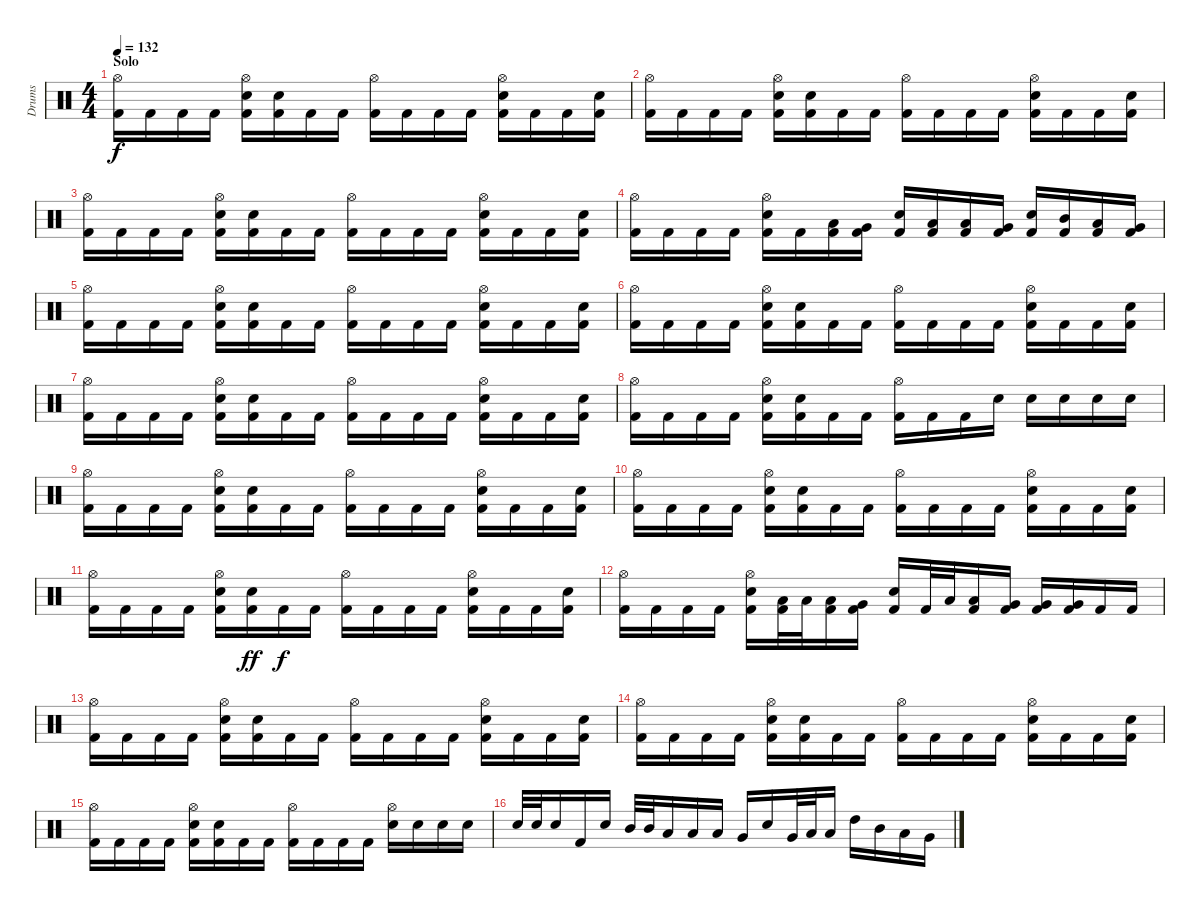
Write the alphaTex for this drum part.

\track ("Drums" "Drums") {instrument percussion}
\staff {score}
\articulation defaults
\ts (4 4)
\section ("" "Solo")
\tempo 132
\clef neutral
\ks c
("Hi-Hat (open)" "Kick (hit) 2").16{dy f} "Kick (hit) 2".16 "Kick (hit) 2".16 "Kick (hit) 2".16 ("Hi-Hat (open)" "Electric Snare (hit)" "Kick (hit) 2").16 ("Electric Snare (hit)" "Kick (hit) 2").16 "Kick (hit) 2".16 "Kick (hit) 2".16 ("Hi-Hat (open)" "Kick (hit) 2").16 "Kick (hit) 2".16 "Kick (hit) 2".16 "Kick (hit) 2".16 ("Hi-Hat (open)" "Electric Snare (hit)" "Kick (hit) 2").16 "Kick (hit) 2".16 "Kick (hit) 2".16 ("Electric Snare (hit)" "Kick (hit) 2").16 |
("Hi-Hat (open)" "Kick (hit) 2").16 "Kick (hit) 2".16 "Kick (hit) 2".16 "Kick (hit) 2".16 ("Hi-Hat (open)" "Electric Snare (hit)" "Kick (hit) 2").16 ("Electric Snare (hit)" "Kick (hit) 2").16 "Kick (hit) 2".16 "Kick (hit) 2".16 ("Hi-Hat (open)" "Kick (hit) 2").16 "Kick (hit) 2".16 "Kick (hit) 2".16 "Kick (hit) 2".16 ("Hi-Hat (open)" "Electric Snare (hit)" "Kick (hit) 2").16 "Kick (hit) 2".16 "Kick (hit) 2".16 ("Electric Snare (hit)" "Kick (hit) 2").16 |
("Hi-Hat (open)" "Kick (hit) 2").16 "Kick (hit) 2".16 "Kick (hit) 2".16 "Kick (hit) 2".16 ("Hi-Hat (open)" "Electric Snare (hit)" "Kick (hit) 2").16 ("Electric Snare (hit)" "Kick (hit) 2").16 "Kick (hit) 2".16 "Kick (hit) 2".16 ("Hi-Hat (open)" "Kick (hit) 2").16 "Kick (hit) 2".16 "Kick (hit) 2".16 "Kick (hit) 2".16 ("Hi-Hat (open)" "Electric Snare (hit)" "Kick (hit) 2").16 "Kick (hit) 2".16 "Kick (hit) 2".16 ("Electric Snare (hit)" "Kick (hit) 2").16 |
("Hi-Hat (open)" "Kick (hit) 2").16 "Kick (hit) 2".16 "Kick (hit) 2".16 "Kick (hit) 2".16 ("Hi-Hat (open)" "Electric Snare (hit)" "Kick (hit) 2").16 "Kick (hit) 2".16 ("Low Tom (hit)" "Kick (hit) 2").16 ("Very Low Tom (hit)" "Kick (hit) 2").16 ("Electric Snare (hit)" "Kick (hit) 2").16 ("Low Tom (hit)" "Kick (hit) 2").16 ("Low Tom (hit)" "Kick (hit) 2").16 ("Very Low Tom (hit)" "Kick (hit) 2").16 ("Electric Snare (hit)" "Kick (hit) 2").16 ("Mid Tom (hit)" "Kick (hit) 2").16 ("Low Tom (hit)" "Kick (hit) 2").16 ("Very Low Tom (hit)" "Kick (hit) 2").16 |
("Hi-Hat (open)" "Kick (hit) 2").16 "Kick (hit) 2".16 "Kick (hit) 2".16 "Kick (hit) 2".16 ("Hi-Hat (open)" "Electric Snare (hit)" "Kick (hit) 2").16 ("Electric Snare (hit)" "Kick (hit) 2").16 "Kick (hit) 2".16 "Kick (hit) 2".16 ("Hi-Hat (open)" "Kick (hit) 2").16 "Kick (hit) 2".16 "Kick (hit) 2".16 "Kick (hit) 2".16 ("Hi-Hat (open)" "Electric Snare (hit)" "Kick (hit) 2").16 "Kick (hit) 2".16 "Kick (hit) 2".16 ("Electric Snare (hit)" "Kick (hit) 2").16 |
("Hi-Hat (open)" "Kick (hit) 2").16 "Kick (hit) 2".16 "Kick (hit) 2".16 "Kick (hit) 2".16 ("Hi-Hat (open)" "Electric Snare (hit)" "Kick (hit) 2").16 ("Electric Snare (hit)" "Kick (hit) 2").16 "Kick (hit) 2".16 "Kick (hit) 2".16 ("Hi-Hat (open)" "Kick (hit) 2").16 "Kick (hit) 2".16 "Kick (hit) 2".16 "Kick (hit) 2".16 ("Hi-Hat (open)" "Electric Snare (hit)" "Kick (hit) 2").16 "Kick (hit) 2".16 "Kick (hit) 2".16 ("Electric Snare (hit)" "Kick (hit) 2").16 |
("Hi-Hat (open)" "Kick (hit) 2").16 "Kick (hit) 2".16 "Kick (hit) 2".16 "Kick (hit) 2".16 ("Hi-Hat (open)" "Electric Snare (hit)" "Kick (hit) 2").16 ("Electric Snare (hit)" "Kick (hit) 2").16 "Kick (hit) 2".16 "Kick (hit) 2".16 ("Hi-Hat (open)" "Kick (hit) 2").16 "Kick (hit) 2".16 "Kick (hit) 2".16 "Kick (hit) 2".16 ("Hi-Hat (open)" "Electric Snare (hit)" "Kick (hit) 2").16 "Kick (hit) 2".16 "Kick (hit) 2".16 ("Electric Snare (hit)" "Kick (hit) 2").16 |
("Hi-Hat (open)" "Kick (hit) 2").16 "Kick (hit) 2".16 "Kick (hit) 2".16 "Kick (hit) 2".16 ("Hi-Hat (open)" "Electric Snare (hit)" "Kick (hit) 2").16 ("Electric Snare (hit)" "Kick (hit) 2").16 "Kick (hit) 2".16 "Kick (hit) 2".16 ("Hi-Hat (open)" "Kick (hit) 2").16 "Kick (hit) 2".16 "Kick (hit) 2".16 "Electric Snare (hit)".16 "Electric Snare (hit)".16 "Electric Snare (hit)".16 "Electric Snare (hit)".16 "Electric Snare (hit)".16 |
("Hi-Hat (open)" "Kick (hit) 2").16 "Kick (hit) 2".16 "Kick (hit) 2".16 "Kick (hit) 2".16 ("Hi-Hat (open)" "Electric Snare (hit)" "Kick (hit) 2").16 ("Electric Snare (hit)" "Kick (hit) 2").16 "Kick (hit) 2".16 "Kick (hit) 2".16 ("Hi-Hat (open)" "Kick (hit) 2").16 "Kick (hit) 2".16 "Kick (hit) 2".16 "Kick (hit) 2".16 ("Hi-Hat (open)" "Electric Snare (hit)" "Kick (hit) 2").16 "Kick (hit) 2".16 "Kick (hit) 2".16 ("Electric Snare (hit)" "Kick (hit) 2").16 |
("Hi-Hat (open)" "Kick (hit) 2").16 "Kick (hit) 2".16 "Kick (hit) 2".16 "Kick (hit) 2".16 ("Hi-Hat (open)" "Electric Snare (hit)" "Kick (hit) 2").16 ("Electric Snare (hit)" "Kick (hit) 2").16 "Kick (hit) 2".16 "Kick (hit) 2".16 ("Hi-Hat (open)" "Kick (hit) 2").16 "Kick (hit) 2".16 "Kick (hit) 2".16 "Kick (hit) 2".16 ("Hi-Hat (open)" "Electric Snare (hit)" "Kick (hit) 2").16 "Kick (hit) 2".16 "Kick (hit) 2".16 ("Electric Snare (hit)" "Kick (hit) 2").16 |
("Hi-Hat (open)" "Kick (hit) 2").16 "Kick (hit) 2".16 "Kick (hit) 2".16 "Kick (hit) 2".16 ("Hi-Hat (open)" "Electric Snare (hit)" "Kick (hit) 2").16 ("Electric Snare (hit)" "Kick (hit) 2").16{dy ff} "Kick (hit) 2".16{dy f} "Kick (hit) 2".16 ("Hi-Hat (open)" "Kick (hit) 2").16 "Kick (hit) 2".16 "Kick (hit) 2".16 "Kick (hit) 2".16 ("Hi-Hat (open)" "Electric Snare (hit)" "Kick (hit) 2").16 "Kick (hit) 2".16 "Kick (hit) 2".16 ("Electric Snare (hit)" "Kick (hit) 2").16 |
("Hi-Hat (open)" "Kick (hit) 2").16 "Kick (hit) 2".16 "Kick (hit) 2".16 "Kick (hit) 2".16 ("Hi-Hat (open)" "Electric Snare (hit)" "Kick (hit) 2").16 ("Low Tom (hit)" "Kick (hit) 2").32 "Low Tom (hit)".32 ("Low Tom (hit)" "Kick (hit) 2").16 ("Very Low Tom (hit)" "Kick (hit) 2").16 ("Electric Snare (hit)" "Kick (hit) 2").16 "Kick (hit) 2".32 "Low Tom (hit)".32 ("Low Tom (hit)" "Kick (hit) 2").16 ("Very Low Tom (hit)" "Kick (hit) 2").16 ("Very Low Tom (hit)" "Kick (hit) 2").16 ("Very Low Tom (hit)" "Kick (hit) 2").16 "Kick (hit) 2".16 "Kick (hit) 2".16 |
("Hi-Hat (open)" "Kick (hit) 2").16 "Kick (hit) 2".16 "Kick (hit) 2".16 "Kick (hit) 2".16 ("Hi-Hat (open)" "Electric Snare (hit)" "Kick (hit) 2").16 ("Electric Snare (hit)" "Kick (hit) 2").16 "Kick (hit) 2".16 "Kick (hit) 2".16 ("Hi-Hat (open)" "Kick (hit) 2").16 "Kick (hit) 2".16 "Kick (hit) 2".16 "Kick (hit) 2".16 ("Hi-Hat (open)" "Electric Snare (hit)" "Kick (hit) 2").16 "Kick (hit) 2".16 "Kick (hit) 2".16 ("Electric Snare (hit)" "Kick (hit) 2").16 |
("Hi-Hat (open)" "Kick (hit) 2").16 "Kick (hit) 2".16 "Kick (hit) 2".16 "Kick (hit) 2".16 ("Hi-Hat (open)" "Electric Snare (hit)" "Kick (hit) 2").16 ("Electric Snare (hit)" "Kick (hit) 2").16 "Kick (hit) 2".16 "Kick (hit) 2".16 ("Hi-Hat (open)" "Kick (hit) 2").16 "Kick (hit) 2".16 "Kick (hit) 2".16 "Kick (hit) 2".16 ("Hi-Hat (open)" "Electric Snare (hit)" "Kick (hit) 2").16 "Kick (hit) 2".16 "Kick (hit) 2".16 ("Electric Snare (hit)" "Kick (hit) 2").16 |
("Hi-Hat (open)" "Kick (hit) 2").16 "Kick (hit) 2".16 "Kick (hit) 2".16 "Kick (hit) 2".16 ("Hi-Hat (open)" "Electric Snare (hit)" "Kick (hit) 2").16 ("Electric Snare (hit)" "Kick (hit) 2").16 "Kick (hit) 2".16 "Kick (hit) 2".16 ("Hi-Hat (open)" "Kick (hit) 2").16 "Kick (hit) 2".16 "Kick (hit) 2".16 "Kick (hit) 2".16 ("Hi-Hat (open)" "Electric Snare (hit)").16 "Electric Snare (hit)".16 "Electric Snare (hit)".16 "Electric Snare (hit)".16 |
"Electric Snare (hit)".32 "Electric Snare (hit)".32 "Electric Snare (hit)".16 "Kick (hit) 2".16 "Electric Snare (hit)".16 "Mid Tom (hit)".32 "Mid Tom (hit)".32 "Low Tom (hit)".16 "Low Tom (hit)".16 "Low Tom (hit)".16 "Very Low Tom (hit)".16 "Electric Snare (hit)".16 "Very Low Tom (hit)".32 "Low Tom (hit)".32 "Low Tom (hit)".16 "High Tom (hit)".16 "Mid Tom (hit)".16 "Low Tom (hit)".16 "Very Low Tom (hit)".16
